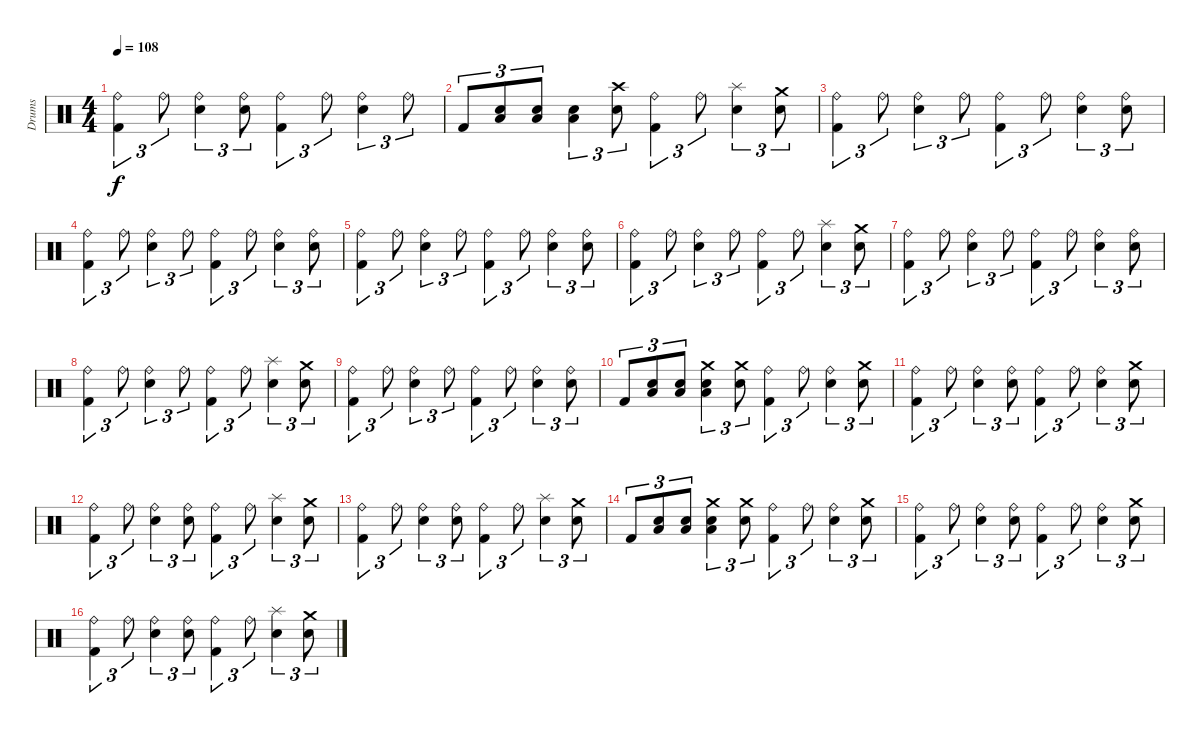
\track ("Drums" "Drums") {instrument percussion}
\staff {score}
\articulation defaults
\ts (4 4)
\tempo 108
\clef neutral
\ks c
("Ride (bell)" "Kick (hit) 2").4{tu (3 2) dy f} "Ride (bell)".8{tu (3 2)} ("Ride (bell)" "Electric Snare (hit)").4{tu (3 2)} ("Ride (bell)" "Electric Snare (hit)").8{tu (3 2)} ("Ride (bell)" "Kick (hit) 2").4{tu (3 2)} "Ride (bell)".8{tu (3 2)} ("Ride (bell)" "Electric Snare (hit)").4{tu (3 2)} "Ride (bell)".8{tu (3 2)} |
"Kick (hit) 2".8{tu (3 2) volume 14} ("Low Tom (hit)" "Electric Snare (hit)").8{tu (3 2)} ("Low Tom (hit)" "Electric Snare (hit)").8{tu (3 2)} ("Low Floor Tom (hit)" "Electric Snare (hit)").4{tu (3 2)} ("Crash high (hit)" "Electric Snare (hit)").8{tu (3 2)} ("Ride (bell)" "Kick (hit) 2").4{tu (3 2)} "Ride (bell)".8{tu (3 2)} ("Splash (hit)" "Electric Snare (hit)").4{tu (3 2)} ("Crash medium (hit)" "Electric Snare (hit)").8{tu (3 2)} |
("Ride (bell)" "Kick (hit) 2").4{tu (3 2)} "Ride (bell)".8{tu (3 2)} ("Ride (bell)" "Electric Snare (hit)").4{tu (3 2)} "Ride (bell)".8{tu (3 2)} ("Ride (bell)" "Kick (hit) 2").4{tu (3 2)} "Ride (bell)".8{tu (3 2)} ("Ride (bell)" "Electric Snare (hit)").4{tu (3 2)} ("Ride (bell)" "Electric Snare (hit)").8{tu (3 2)} |
("Ride (bell)" "Kick (hit) 2").4{tu (3 2)} "Ride (bell)".8{tu (3 2)} ("Ride (bell)" "Electric Snare (hit)").4{tu (3 2)} "Ride (bell)".8{tu (3 2)} ("Ride (bell)" "Kick (hit) 2").4{tu (3 2)} "Ride (bell)".8{tu (3 2)} ("Ride (bell)" "Electric Snare (hit)").4{tu (3 2)} ("Ride (bell)" "Electric Snare (hit)").8{tu (3 2)} |
("Ride (bell)" "Kick (hit) 2").4{tu (3 2) volume 11} "Ride (bell)".8{tu (3 2)} ("Ride (bell)" "Electric Snare (hit)").4{tu (3 2)} "Ride (bell)".8{tu (3 2)} ("Ride (bell)" "Kick (hit) 2").4{tu (3 2)} "Ride (bell)".8{tu (3 2)} ("Ride (bell)" "Electric Snare (hit)").4{tu (3 2)} ("Ride (bell)" "Electric Snare (hit)").8{tu (3 2)} |
("Ride (bell)" "Kick (hit) 2").4{tu (3 2)} "Ride (bell)".8{tu (3 2)} ("Ride (bell)" "Electric Snare (hit)").4{tu (3 2)} "Ride (bell)".8{tu (3 2)} ("Ride (bell)" "Kick (hit) 2").4{tu (3 2)} "Ride (bell)".8{tu (3 2)} ("Splash (hit)" "Electric Snare (hit)").4{tu (3 2)} ("Crash medium (hit)" "Electric Snare (hit)").8{tu (3 2)} |
("Ride (bell)" "Kick (hit) 2").4{tu (3 2)} "Ride (bell)".8{tu (3 2)} ("Ride (bell)" "Electric Snare (hit)").4{tu (3 2)} "Ride (bell)".8{tu (3 2)} ("Ride (bell)" "Kick (hit) 2").4{tu (3 2)} "Ride (bell)".8{tu (3 2)} ("Ride (bell)" "Electric Snare (hit)").4{tu (3 2)} ("Ride (bell)" "Electric Snare (hit)").8{tu (3 2)} |
("Ride (bell)" "Kick (hit) 2").4{tu (3 2) volume 9} "Ride (bell)".8{tu (3 2)} ("Ride (bell)" "Electric Snare (hit)").4{tu (3 2)} "Ride (bell)".8{tu (3 2)} ("Ride (bell)" "Kick (hit) 2").4{tu (3 2)} "Ride (bell)".8{tu (3 2)} ("Splash (hit)" "Electric Snare (hit)").4{tu (3 2)} ("Crash medium (hit)" "Electric Snare (hit)").8{tu (3 2)} |
("Ride (bell)" "Kick (hit) 2").4{tu (3 2)} "Ride (bell)".8{tu (3 2)} ("Ride (bell)" "Electric Snare (hit)").4{tu (3 2)} "Ride (bell)".8{tu (3 2)} ("Ride (bell)" "Kick (hit) 2").4{tu (3 2)} "Ride (bell)".8{tu (3 2)} ("Ride (bell)" "Electric Snare (hit)").4{tu (3 2)} ("Ride (bell)" "Electric Snare (hit)").8{tu (3 2)} |
"Kick (hit) 2".8{tu (3 2)} ("Low Floor Tom (hit)" "Electric Snare (hit)").8{tu (3 2)} ("Low Floor Tom (hit)" "Electric Snare (hit)").8{tu (3 2)} ("Crash medium (hit)" "Low Floor Tom (hit)" "Electric Snare (hit)").4{tu (3 2)} ("Crash medium (hit)" "Electric Snare (hit)").8{tu (3 2)} ("Ride (bell)" "Kick (hit) 2").4{tu (3 2)} "Ride (bell)".8{tu (3 2)} ("Ride (bell)" "Electric Snare (hit)").4{tu (3 2)} ("Crash medium (hit)" "Electric Snare (hit)").8{tu (3 2)} |
("Ride (bell)" "Kick (hit) 2").4{tu (3 2) volume 7} "Ride (bell)".8{tu (3 2)} ("Ride (bell)" "Electric Snare (hit)").4{tu (3 2)} ("Ride (bell)" "Electric Snare (hit)").8{tu (3 2)} ("Ride (bell)" "Kick (hit) 2").4{tu (3 2)} "Ride (bell)".8{tu (3 2)} ("Ride (bell)" "Electric Snare (hit)").4{tu (3 2)} ("Crash medium (hit)" "Electric Snare (hit)").8{tu (3 2)} |
("Ride (bell)" "Kick (hit) 2").4{tu (3 2)} "Ride (bell)".8{tu (3 2)} ("Ride (bell)" "Electric Snare (hit)").4{tu (3 2)} ("Ride (bell)" "Electric Snare (hit)").8{tu (3 2)} ("Ride (bell)" "Kick (hit) 2").4{tu (3 2)} "Ride (bell)".8{tu (3 2)} ("Splash (hit)" "Electric Snare (hit)").4{tu (3 2)} ("Crash medium (hit)" "Electric Snare (hit)").8{tu (3 2)} |
("Ride (bell)" "Kick (hit) 2").4{tu (3 2)} "Ride (bell)".8{tu (3 2)} ("Ride (bell)" "Electric Snare (hit)").4{tu (3 2)} ("Ride (bell)" "Electric Snare (hit)").8{tu (3 2)} ("Ride (bell)" "Kick (hit) 2").4{tu (3 2)} "Ride (bell)".8{tu (3 2)} ("Splash (hit)" "Electric Snare (hit)").4{tu (3 2)} ("Crash medium (hit)" "Electric Snare (hit)").8{tu (3 2)} |
"Kick (hit) 2".8{tu (3 2) volume 5} ("Low Floor Tom (hit)" "Electric Snare (hit)").8{tu (3 2)} ("Low Floor Tom (hit)" "Electric Snare (hit)").8{tu (3 2)} ("Crash medium (hit)" "Low Floor Tom (hit)" "Electric Snare (hit)").4{tu (3 2)} ("Crash medium (hit)" "Electric Snare (hit)").8{tu (3 2)} ("Ride (bell)" "Kick (hit) 2").4{tu (3 2)} "Ride (bell)".8{tu (3 2)} ("Ride (bell)" "Electric Snare (hit)").4{tu (3 2)} ("Crash medium (hit)" "Electric Snare (hit)").8{tu (3 2)} |
("Ride (bell)" "Kick (hit) 2").4{tu (3 2)} "Ride (bell)".8{tu (3 2)} ("Ride (bell)" "Electric Snare (hit)").4{tu (3 2)} ("Ride (bell)" "Electric Snare (hit)").8{tu (3 2)} ("Ride (bell)" "Kick (hit) 2").4{tu (3 2)} "Ride (bell)".8{tu (3 2)} ("Ride (bell)" "Electric Snare (hit)").4{tu (3 2)} ("Crash medium (hit)" "Electric Snare (hit)").8{tu (3 2)} |
("Ride (bell)" "Kick (hit) 2").4{tu (3 2) volume 0} "Ride (bell)".8{tu (3 2)} ("Ride (bell)" "Electric Snare (hit)").4{tu (3 2)} ("Ride (bell)" "Electric Snare (hit)").8{tu (3 2)} ("Ride (bell)" "Kick (hit) 2").4{tu (3 2)} "Ride (bell)".8{tu (3 2)} ("Splash (hit)" "Electric Snare (hit)").4{tu (3 2)} ("Crash medium (hit)" "Electric Snare (hit)").8{tu (3 2)}
